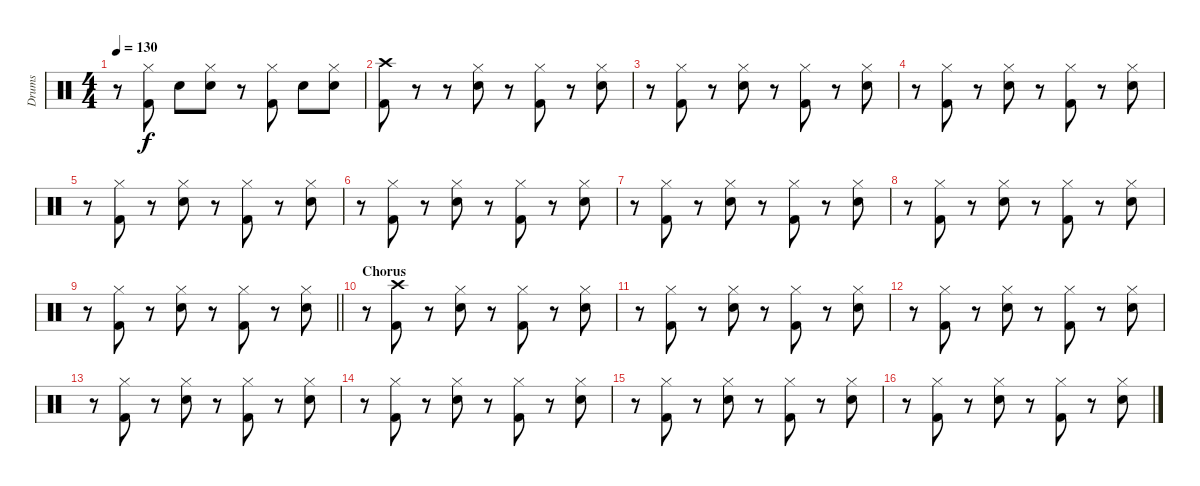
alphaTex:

\track ("Drums" "Drums") {instrument percussion}
\staff {score}
\articulation defaults
\ts (4 4)
\tempo 130
\clef neutral
\ks c
r.8{dy f} ("Hi-Hat (closed)" "Kick (hit) 2").8 "Snare (hit) 2".8 ("Hi-Hat (closed)" "Snare (hit) 2").8 r.8 ("Hi-Hat (closed)" "Kick (hit) 2").8 "Snare (hit) 2".8 ("Hi-Hat (closed)" "Snare (hit) 2").8 |
("Crash high (hit)" "Kick (hit) 2").8 r.8 r.8 ("Hi-Hat (closed)" "Snare (hit) 2").8 r.8 ("Hi-Hat (closed)" "Kick (hit) 2").8 r.8 ("Hi-Hat (closed)" "Snare (hit) 2").8 |
r.8 ("Hi-Hat (closed)" "Kick (hit) 2").8 r.8 ("Hi-Hat (closed)" "Snare (hit) 2").8 r.8 ("Hi-Hat (closed)" "Kick (hit) 2").8 r.8 ("Hi-Hat (closed)" "Snare (hit) 2").8 |
r.8 ("Hi-Hat (closed)" "Kick (hit) 2").8 r.8 ("Hi-Hat (closed)" "Snare (hit) 2").8 r.8 ("Hi-Hat (closed)" "Kick (hit) 2").8 r.8 ("Hi-Hat (closed)" "Snare (hit) 2").8 |
r.8 ("Hi-Hat (closed)" "Kick (hit) 2").8 r.8 ("Hi-Hat (closed)" "Snare (hit) 2").8 r.8 ("Hi-Hat (closed)" "Kick (hit) 2").8 r.8 ("Hi-Hat (closed)" "Snare (hit) 2").8 |
r.8 ("Hi-Hat (closed)" "Kick (hit) 2").8 r.8 ("Hi-Hat (closed)" "Snare (hit) 2").8 r.8 ("Hi-Hat (closed)" "Kick (hit) 2").8 r.8 ("Hi-Hat (closed)" "Snare (hit) 2").8 |
r.8 ("Hi-Hat (closed)" "Kick (hit) 2").8 r.8 ("Hi-Hat (closed)" "Snare (hit) 2").8 r.8 ("Hi-Hat (closed)" "Kick (hit) 2").8 r.8 ("Hi-Hat (closed)" "Snare (hit) 2").8 |
r.8 ("Hi-Hat (closed)" "Kick (hit) 2").8 r.8 ("Hi-Hat (closed)" "Snare (hit) 2").8 r.8 ("Hi-Hat (closed)" "Kick (hit) 2").8 r.8 ("Hi-Hat (closed)" "Snare (hit) 2").8 |
\barLineRight lightlight
r.8 ("Hi-Hat (closed)" "Kick (hit) 2").8 r.8 ("Hi-Hat (closed)" "Snare (hit) 2").8 r.8 ("Hi-Hat (closed)" "Kick (hit) 2").8 r.8 ("Hi-Hat (closed)" "Snare (hit) 2").8 |
\section ("" "Chorus")
r.8 ("Crash high (hit)" "Kick (hit) 2").8 r.8 ("Hi-Hat (closed)" "Snare (hit) 2").8 r.8 ("Hi-Hat (closed)" "Kick (hit) 2").8 r.8 ("Hi-Hat (closed)" "Snare (hit) 2").8 |
r.8 ("Hi-Hat (closed)" "Kick (hit) 2").8 r.8 ("Hi-Hat (closed)" "Snare (hit) 2").8 r.8 ("Hi-Hat (closed)" "Kick (hit) 2").8 r.8 ("Hi-Hat (closed)" "Snare (hit) 2").8 |
r.8 ("Hi-Hat (closed)" "Kick (hit) 2").8 r.8 ("Hi-Hat (closed)" "Snare (hit) 2").8 r.8 ("Hi-Hat (closed)" "Kick (hit) 2").8 r.8 ("Hi-Hat (closed)" "Snare (hit) 2").8 |
r.8 ("Hi-Hat (closed)" "Kick (hit) 2").8 r.8 ("Hi-Hat (closed)" "Snare (hit) 2").8 r.8 ("Hi-Hat (closed)" "Kick (hit) 2").8 r.8 ("Hi-Hat (closed)" "Snare (hit) 2").8 |
r.8 ("Hi-Hat (closed)" "Kick (hit) 2").8 r.8 ("Hi-Hat (closed)" "Snare (hit) 2").8 r.8 ("Hi-Hat (closed)" "Kick (hit) 2").8 r.8 ("Hi-Hat (closed)" "Snare (hit) 2").8 |
r.8 ("Hi-Hat (closed)" "Kick (hit) 2").8 r.8 ("Hi-Hat (closed)" "Snare (hit) 2").8 r.8 ("Hi-Hat (closed)" "Kick (hit) 2").8 r.8 ("Hi-Hat (closed)" "Snare (hit) 2").8 |
r.8 ("Hi-Hat (closed)" "Kick (hit) 2").8 r.8 ("Hi-Hat (closed)" "Snare (hit) 2").8 r.8 ("Hi-Hat (closed)" "Kick (hit) 2").8 r.8 ("Hi-Hat (closed)" "Snare (hit) 2").8
